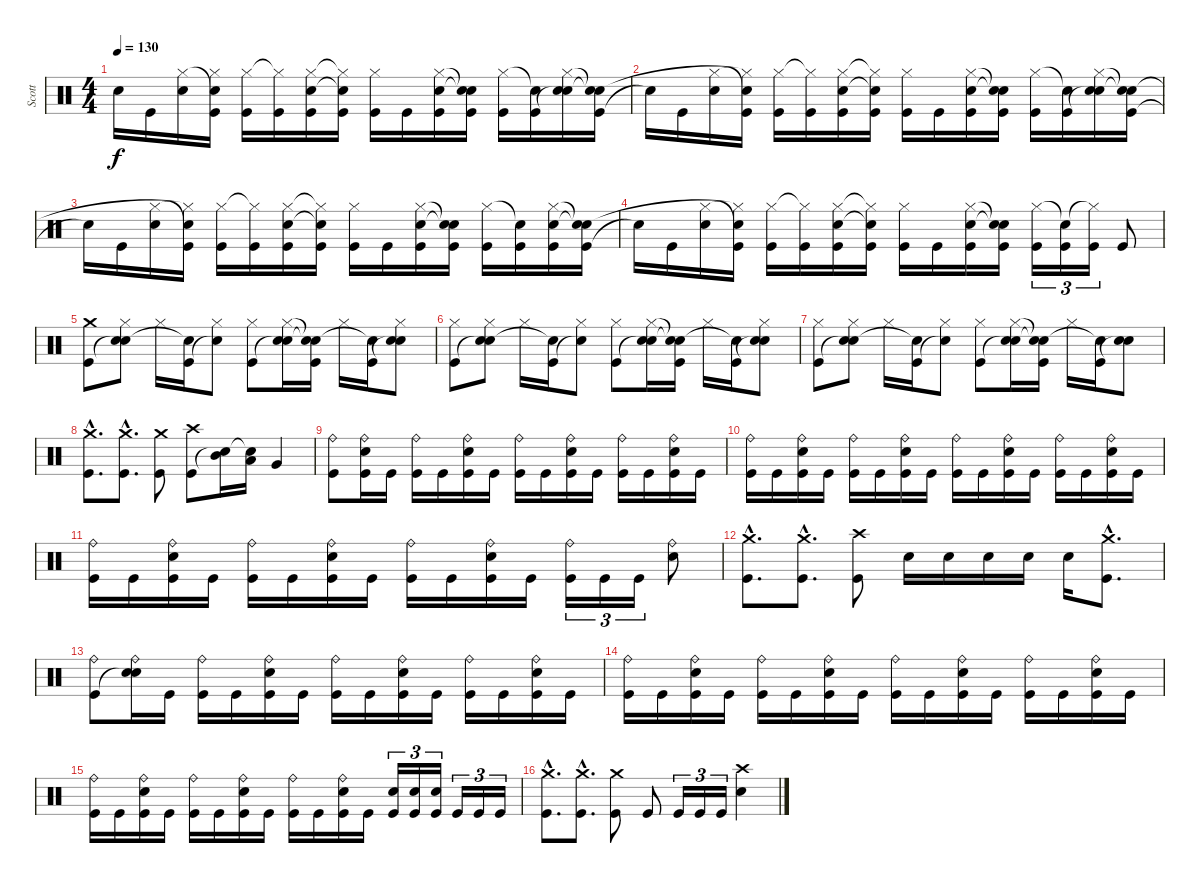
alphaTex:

\track ("Scott" "Scott") {instrument percussion}
\staff {score}
\articulation defaults
\ts (4 4)
\tempo 130
\clef neutral
\ks c "Snare (hit)"{t}.16{dy f} "Kick (hit)".16
("Snare (hit) 2" "Hi-Hat (closed)").16 ("Kick (hit)" "Snare (hit)"{t} "Hi-Hat (closed)"{t}).16 ("Kick (hit)" "Hi-Hat (closed)").16 ("Kick (hit)" "Hi-Hat (closed)"{t}).16 ("Kick (hit)" "Snare (hit) 2" "Hi-Hat (closed)").16 ("Kick (hit)" "Snare (hit)"{t} "Hi-Hat (closed)"{t}).16 ("Kick (hit)" "Hi-Hat (closed)").16 "Kick (hit)".16 ("Kick (hit)" "Snare (hit) 2" "Hi-Hat (closed)").16 ("Kick (hit)" "Snare (hit)"{t} "Snare (hit)"{t}).16 ("Kick (hit)" "Hi-Hat (closed)").16 ("Kick (hit)" "Snare (hit)"{t}).16 ("Snare (hit)"{t} "Snare (hit) 2" "Hi-Hat (closed)").16 ("Kick (hit)" "Snare (hit)"{t} "Snare (hit)"{t}).16 |
"Snare (hit)"{t}.16 "Kick (hit)".16 ("Snare (hit) 2" "Hi-Hat (closed)").16 ("Kick (hit)" "Snare (hit)"{t} "Hi-Hat (closed)"{t}).16 ("Kick (hit)" "Hi-Hat (closed)").16 ("Kick (hit)" "Hi-Hat (closed)"{t}).16 ("Kick (hit)" "Snare (hit) 2" "Hi-Hat (closed)").16 ("Kick (hit)" "Snare (hit)"{t} "Hi-Hat (closed)"{t}).16 ("Kick (hit)" "Hi-Hat (closed)").16 "Kick (hit)".16 ("Kick (hit)" "Snare (hit) 2" "Hi-Hat (closed)").16 ("Kick (hit)" "Snare (hit)"{t} "Snare (hit)"{t}).16 ("Kick (hit)" "Hi-Hat (closed)").16 ("Kick (hit)" "Snare (hit)"{t}).16 ("Snare (hit)"{t} "Snare (hit) 2" "Hi-Hat (closed)").16 ("Kick (hit)" "Snare (hit)"{t} "Snare (hit)"{t}).16 |
"Snare (hit)"{t}.16 "Kick (hit)".16 ("Snare (hit) 2" "Hi-Hat (closed)").16 ("Kick (hit)" "Snare (hit)"{t} "Hi-Hat (closed)"{t}).16 ("Kick (hit)" "Hi-Hat (closed)").16 ("Kick (hit)" "Hi-Hat (closed)"{t}).16 ("Kick (hit)" "Snare (hit) 2" "Hi-Hat (closed)").16 ("Kick (hit)" "Snare (hit)"{t} "Hi-Hat (closed)"{t}).16 ("Kick (hit)" "Hi-Hat (closed)").16 "Kick (hit)".16 ("Kick (hit)" "Snare (hit) 2" "Hi-Hat (closed)").16 ("Kick (hit)" "Snare (hit)"{t} "Snare (hit)"{t}).16 ("Kick (hit)" "Hi-Hat (closed)").16 ("Kick (hit)" "Snare (hit)"{t}).16 ("Kick (hit)" "Snare (hit) 2" "Hi-Hat (closed)").16 ("Kick (hit)" "Snare (hit)"{t} "Snare (hit)"{t}).16 |
"Snare (hit)"{t}.16 "Kick (hit)".16 ("Snare (hit) 2" "Hi-Hat (closed)").16 ("Kick (hit)" "Snare (hit)"{t} "Hi-Hat (closed)"{t}).16 ("Kick (hit)" "Hi-Hat (closed)").16 ("Kick (hit)" "Hi-Hat (closed)"{t}).16 ("Kick (hit)" "Snare (hit) 2" "Hi-Hat (closed)").16 ("Kick (hit)" "Snare (hit)"{t} "Hi-Hat (closed)"{t}).16 ("Kick (hit)" "Hi-Hat (closed)").16 "Kick (hit)".16 ("Kick (hit)" "Snare (hit) 2" "Hi-Hat (closed)").16 ("Kick (hit)" "Snare (hit)"{t} "Snare (hit)"{t}).16 ("Kick (hit)" "Hi-Hat (closed)").16{tu (3 2)} ("Kick (hit)" "Snare (hit)"{t}).16{tu (3 2)} ("Kick (hit)" "Hi-Hat (closed)"{t}).16{tu (3 2)} "Kick (hit)".8 |
("Kick (hit)" "Crash medium (hit)").8 ("Snare (hit)"{t} "Snare (hit) 2" "Hi-Hat (closed)").8 "Hi-Hat (closed)".16 ("Kick (hit)" "Snare (hit)"{t}).16 ("Snare (hit)"{t} "Hi-Hat (closed)").8 ("Kick (hit)" "Hi-Hat (closed)").8 ("Snare (hit)"{t} "Snare (hit) 2" "Hi-Hat (closed)").16 ("Kick (hit)" "Snare (hit)"{t} "Snare (hit)"{t}).16 "Hi-Hat (closed)".16 ("Kick (hit)" "Snare (hit)"{t}).16 ("Snare (hit)"{t} "Snare (hit) 2" "Hi-Hat (closed)").8 |
("Kick (hit)" "Hi-Hat (closed)").8 ("Snare (hit)"{t} "Snare (hit) 2" "Hi-Hat (closed)").8 "Hi-Hat (closed)".16 ("Kick (hit)" "Snare (hit)"{t}).16 ("Snare (hit)"{t} "Hi-Hat (closed)").8 ("Kick (hit)" "Hi-Hat (closed)").8 ("Snare (hit)"{t} "Snare (hit) 2" "Hi-Hat (closed)").16 ("Kick (hit)" "Snare (hit)"{t} "Snare (hit)"{t}).16 "Hi-Hat (closed)".16 ("Kick (hit)" "Snare (hit)"{t}).16 ("Snare (hit)"{t} "Snare (hit) 2" "Hi-Hat (closed)").8 |
("Kick (hit)" "Hi-Hat (closed)").8 ("Snare (hit)"{t} "Snare (hit) 2" "Hi-Hat (closed)").8 "Hi-Hat (closed)".16 ("Kick (hit)" "Snare (hit)"{t}).16 ("Snare (hit)"{t} "Hi-Hat (closed)").8 ("Kick (hit)" "Hi-Hat (closed)").8 ("Snare (hit)"{t} "Snare (hit) 2" "Hi-Hat (closed)").16 ("Kick (hit)" "Snare (hit)"{t} "Snare (hit)"{t}).16 "Hi-Hat (closed)".16 ("Kick (hit)" "Snare (hit)"{t}).16 ("Snare (hit)"{t} "Snare (hit) 2").8 |
("Kick (hit)"{hac} "Crash medium (hit)"{hac}).8{d} ("Kick (hit)"{hac} "Crash medium (hit)"{hac}).8{d} ("Kick (hit)" "Crash medium (hit)").8 ("Kick (hit)" "Crash high (hit)").8 ("Snare (hit)"{t} "Mid Tom (hit)").16 ("Snare (hit)"{t} "Low Tom (hit)").16 "Very Low Tom (hit)".4 |
("Kick (hit)" "Ride (bell)").8 ("Kick (hit)" "Snare (hit) 2" "Ride (bell)").16 "Kick (hit)".16 ("Kick (hit)" "Ride (bell)").16 "Kick (hit)".16 ("Kick (hit)" "Snare (hit) 2" "Ride (bell)").16 "Kick (hit)".16 ("Kick (hit)" "Ride (bell)").16 "Kick (hit)".16 ("Kick (hit)" "Snare (hit) 2" "Ride (bell)").16 "Kick (hit)".16 ("Kick (hit)" "Ride (bell)").16 "Kick (hit)".16 ("Kick (hit)" "Snare (hit) 2" "Ride (bell)").16 "Kick (hit)".16 |
("Kick (hit)" "Ride (bell)").16 "Kick (hit)".16 ("Kick (hit)" "Snare (hit) 2" "Ride (bell)").16 "Kick (hit)".16 ("Kick (hit)" "Ride (bell)").16 "Kick (hit)".16 ("Kick (hit)" "Snare (hit) 2" "Ride (bell)").16 "Kick (hit)".16 ("Kick (hit)" "Ride (bell)").16 "Kick (hit)".16 ("Kick (hit)" "Snare (hit) 2" "Ride (bell)").16 "Kick (hit)".16 ("Kick (hit)" "Ride (bell)").16 "Kick (hit)".16 ("Kick (hit)" "Snare (hit) 2" "Ride (bell)").16 "Kick (hit)".16 |
("Kick (hit)" "Ride (bell)").16 "Kick (hit)".16 ("Kick (hit)" "Snare (hit) 2" "Ride (bell)").16 "Kick (hit)".16 ("Kick (hit)" "Ride (bell)").16 "Kick (hit)".16 ("Kick (hit)" "Snare (hit) 2" "Ride (bell)").16 "Kick (hit)".16 ("Kick (hit)" "Ride (bell)").16 "Kick (hit)".16 ("Kick (hit)" "Snare (hit) 2" "Ride (bell)").16 "Kick (hit)".16 ("Kick (hit)" "Ride (bell)").16{tu (3 2)} "Kick (hit)".16{tu (3 2)} "Kick (hit)".16{tu (3 2)} ("Snare (hit) 2" "Ride (bell)").8 |
("Kick (hit)"{hac} "Crash medium (hit)"{hac}).8{d} ("Kick (hit)"{hac} "Crash medium (hit)"{hac}).8{d} ("Kick (hit)" "Crash high (hit)").8 "Snare (hit) 2".16 "Snare (hit) 2".16 "Snare (hit) 2".16 "Snare (hit) 2".16 "Snare (hit) 2".16 ("Kick (hit)"{hac} "Crash medium (hit)"{hac}).8{d} |
("Kick (hit)" "Ride (bell)").8 ("Snare (hit)"{t} "Snare (hit) 2" "Ride (bell)").16 "Kick (hit)".16 ("Kick (hit)" "Ride (bell)").16 "Kick (hit)".16 ("Kick (hit)" "Snare (hit) 2" "Ride (bell)").16 "Kick (hit)".16 ("Kick (hit)" "Ride (bell)").16 "Kick (hit)".16 ("Kick (hit)" "Snare (hit) 2" "Ride (bell)").16 "Kick (hit)".16 ("Kick (hit)" "Ride (bell)").16 "Kick (hit)".16 ("Kick (hit)" "Snare (hit) 2" "Ride (bell)").16 "Kick (hit)".16 |
("Kick (hit)" "Ride (bell)").16 "Kick (hit)".16 ("Kick (hit)" "Snare (hit) 2" "Ride (bell)").16 "Kick (hit)".16 ("Kick (hit)" "Ride (bell)").16 "Kick (hit)".16 ("Kick (hit)" "Snare (hit) 2" "Ride (bell)").16 "Kick (hit)".16 ("Kick (hit)" "Ride (bell)").16 "Kick (hit)".16 ("Kick (hit)" "Snare (hit) 2" "Ride (bell)").16 "Kick (hit)".16 ("Kick (hit)" "Ride (bell)").16 "Kick (hit)".16 ("Kick (hit)" "Snare (hit) 2" "Ride (bell)").16 "Kick (hit)".16 |
("Kick (hit)" "Ride (bell)").16 "Kick (hit)".16 ("Kick (hit)" "Snare (hit) 2" "Ride (bell)").16 "Kick (hit)".16 ("Kick (hit)" "Ride (bell)").16 "Kick (hit)".16 ("Kick (hit)" "Snare (hit) 2" "Ride (bell)").16 "Kick (hit)".16 ("Kick (hit)" "Ride (bell)").16 "Kick (hit)".16 ("Kick (hit)" "Snare (hit) 2" "Ride (bell)").16 "Kick (hit)".16 ("Kick (hit)" "Snare (hit) 2").16{tu (3 2)} ("Kick (hit)" "Snare (hit) 2").16{tu (3 2)} ("Kick (hit)" "Snare (hit) 2").16{tu (3 2)} "Kick (hit)".16{tu (3 2)} "Kick (hit)".16{tu (3 2)} "Kick (hit)".16{tu (3 2)} |
("Kick (hit)"{hac} "Crash medium (hit)"{hac}).8{d} ("Kick (hit)"{hac} "Crash medium (hit)"{hac}).8{d} ("Kick (hit)" "Crash medium (hit)").8 "Kick (hit)".8 "Kick (hit)".16{tu (3 2)} "Kick (hit)".16{tu (3 2)} "Kick (hit)".16{tu (3 2)} ("Snare (hit) 2" "Crash high (hit)").4
